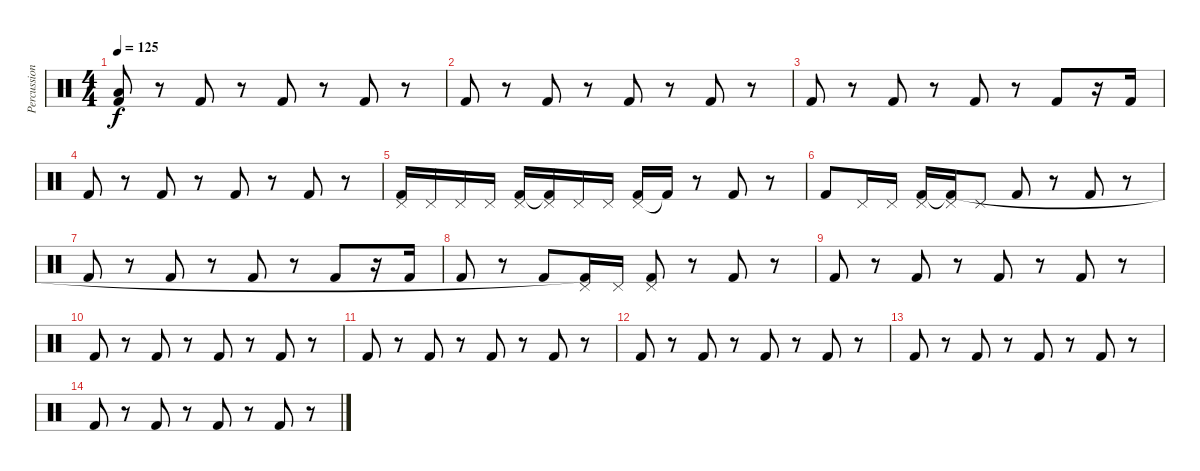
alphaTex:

\track ("Percussion" "Percussion") {instrument percussion}
\staff {score}
\articulation defaults
\ts (4 4)
\tempo 125
\clef neutral
\ks c
("Low Floor Tom (hit)" "Kick (hit) 2").8{dy f} r.8 "Kick (hit) 2".8 r.8 "Kick (hit) 2".8 r.8 "Kick (hit) 2".8 r.8 |
"Kick (hit) 2".8 r.8 "Kick (hit) 2".8 r.8 "Kick (hit) 2".8 r.8 "Kick (hit) 2".8 r.8 |
"Kick (hit) 2".8 r.8 "Kick (hit) 2".8 r.8 "Kick (hit) 2".8 r.8 "Kick (hit) 2".8 r.16 "Kick (hit) 2".16 |
"Kick (hit) 2".8 r.8 "Kick (hit) 2".8 r.8 "Kick (hit) 2".8 r.8 "Kick (hit) 2".8 r.8 |
("Pedal Hi-Hat (hit)" "Kick (hit) 2").16 "Pedal Hi-Hat (hit)".16 "Pedal Hi-Hat (hit)".16 "Pedal Hi-Hat (hit)".16 ("Pedal Hi-Hat (hit)" "Kick (hit) 2").16 ("Pedal Hi-Hat (hit)" "Kick (hit) 2"{t}).16 "Pedal Hi-Hat (hit)".16 "Pedal Hi-Hat (hit)".16 ("Pedal Hi-Hat (hit)" "Kick (hit) 2").16 "Kick (hit) 2"{t}.16 r.8 "Kick (hit) 2".8 r.8 |
"Kick (hit) 2".8 "Pedal Hi-Hat (hit)".16 "Pedal Hi-Hat (hit)".16 ("Pedal Hi-Hat (hit)" "Kick (hit) 2").16 ("Pedal Hi-Hat (hit)" "Kick (hit) 2"{t}).16 "Pedal Hi-Hat (hit)".8 "Kick (hit) 2".8 r.8 "Kick (hit) 2".8 r.8 |
"Kick (hit) 2".8 r.8 "Kick (hit) 2".8 r.8 "Kick (hit) 2".8 r.8 "Kick (hit) 2".8 r.16 "Kick (hit) 2".16 |
"Kick (hit) 2".8 r.8 "Kick (hit) 2".8 ("Pedal Hi-Hat (hit)" "Kick (hit) 2"{t}).16 "Pedal Hi-Hat (hit)".16 ("Pedal Hi-Hat (hit)" "Kick (hit) 2").8 r.8 "Kick (hit) 2".8 r.8 |
"Kick (hit) 2".8 r.8 "Kick (hit) 2".8 r.8 "Kick (hit) 2".8 r.8 "Kick (hit) 2".8 r.8 |
"Kick (hit) 2".8 r.8 "Kick (hit) 2".8 r.8 "Kick (hit) 2".8 r.8 "Kick (hit) 2".8 r.8 |
"Kick (hit) 2".8 r.8 "Kick (hit) 2".8 r.8 "Kick (hit) 2".8 r.8 "Kick (hit) 2".8 r.8 |
"Kick (hit) 2".8 r.8 "Kick (hit) 2".8 r.8 "Kick (hit) 2".8 r.8 "Kick (hit) 2".8 r.8 |
"Kick (hit) 2".8 r.8 "Kick (hit) 2".8 r.8 "Kick (hit) 2".8 r.8 "Kick (hit) 2".8 r.8 |
"Kick (hit) 2".8 r.8 "Kick (hit) 2".8 r.8 "Kick (hit) 2".8 r.8 "Kick (hit) 2".8 r.8
